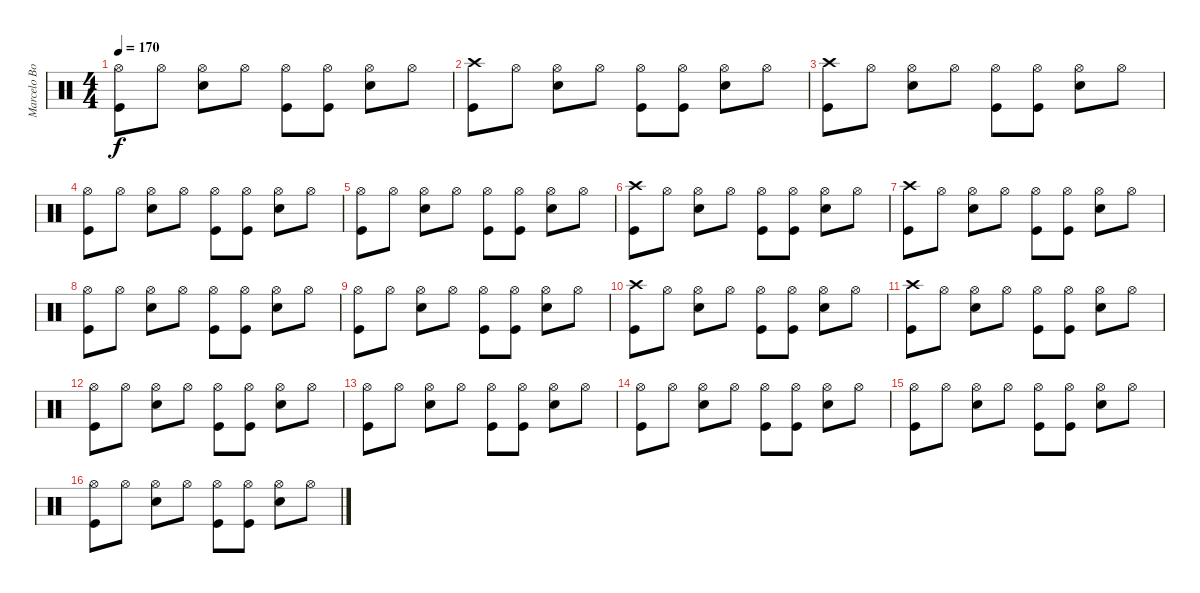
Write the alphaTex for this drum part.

\track ("Marcelo Bonfá" "Marcelo Bo") {instrument percussion}
\staff {score}
\articulation defaults
\ts (4 4)
\tempo 170
\clef neutral
\ks c
("Hi-Hat (open)" "Kick (hit)").8{dy f} "Hi-Hat (open)".8 ("Hi-Hat (open)" "Snare (hit) 2").8 "Hi-Hat (open)".8 ("Hi-Hat (open)" "Kick (hit)").8 ("Hi-Hat (open)" "Kick (hit)").8 ("Hi-Hat (open)" "Snare (hit) 2").8 "Hi-Hat (open)".8 |
("Crash high (hit)" "Kick (hit)").8 "Hi-Hat (open)".8 ("Hi-Hat (open)" "Snare (hit) 2").8 "Hi-Hat (open)".8 ("Hi-Hat (open)" "Kick (hit)").8 ("Hi-Hat (open)" "Kick (hit)").8 ("Hi-Hat (open)" "Snare (hit) 2").8 "Hi-Hat (open)".8 |
("Crash high (hit)" "Kick (hit)").8 "Hi-Hat (open)".8 ("Hi-Hat (open)" "Snare (hit) 2").8 "Hi-Hat (open)".8 ("Hi-Hat (open)" "Kick (hit)").8 ("Hi-Hat (open)" "Kick (hit)").8 ("Hi-Hat (open)" "Snare (hit) 2").8 "Hi-Hat (open)".8 |
("Hi-Hat (open)" "Kick (hit)").8 "Hi-Hat (open)".8 ("Hi-Hat (open)" "Snare (hit) 2").8 "Hi-Hat (open)".8 ("Hi-Hat (open)" "Kick (hit)").8 ("Hi-Hat (open)" "Kick (hit)").8 ("Hi-Hat (open)" "Snare (hit) 2").8 "Hi-Hat (open)".8 |
("Hi-Hat (open)" "Kick (hit)").8 "Hi-Hat (open)".8 ("Hi-Hat (open)" "Snare (hit) 2").8 "Hi-Hat (open)".8 ("Hi-Hat (open)" "Kick (hit)").8 ("Hi-Hat (open)" "Kick (hit)").8 ("Hi-Hat (open)" "Snare (hit) 2").8 "Hi-Hat (open)".8 |
("Crash high (hit)" "Kick (hit)").8 "Hi-Hat (open)".8 ("Hi-Hat (open)" "Snare (hit) 2").8 "Hi-Hat (open)".8 ("Hi-Hat (open)" "Kick (hit)").8 ("Hi-Hat (open)" "Kick (hit)").8 ("Hi-Hat (open)" "Snare (hit) 2").8 "Hi-Hat (open)".8 |
("Crash high (hit)" "Kick (hit)").8 "Hi-Hat (open)".8 ("Hi-Hat (open)" "Snare (hit) 2").8 "Hi-Hat (open)".8 ("Hi-Hat (open)" "Kick (hit)").8 ("Hi-Hat (open)" "Kick (hit)").8 ("Hi-Hat (open)" "Snare (hit) 2").8 "Hi-Hat (open)".8 |
("Hi-Hat (open)" "Kick (hit)").8 "Hi-Hat (open)".8 ("Hi-Hat (open)" "Snare (hit) 2").8 "Hi-Hat (open)".8 ("Hi-Hat (open)" "Kick (hit)").8 ("Hi-Hat (open)" "Kick (hit)").8 ("Hi-Hat (open)" "Snare (hit) 2").8 "Hi-Hat (open)".8 |
("Hi-Hat (open)" "Kick (hit)").8 "Hi-Hat (open)".8 ("Hi-Hat (open)" "Snare (hit) 2").8 "Hi-Hat (open)".8 ("Hi-Hat (open)" "Kick (hit)").8 ("Hi-Hat (open)" "Kick (hit)").8 ("Hi-Hat (open)" "Snare (hit) 2").8 "Hi-Hat (open)".8 |
("Crash high (hit)" "Kick (hit)").8 "Hi-Hat (open)".8 ("Hi-Hat (open)" "Snare (hit) 2").8 "Hi-Hat (open)".8 ("Hi-Hat (open)" "Kick (hit)").8 ("Hi-Hat (open)" "Kick (hit)").8 ("Hi-Hat (open)" "Snare (hit) 2").8 "Hi-Hat (open)".8 |
("Crash high (hit)" "Kick (hit)").8 "Hi-Hat (open)".8 ("Hi-Hat (open)" "Snare (hit) 2").8 "Hi-Hat (open)".8 ("Hi-Hat (open)" "Kick (hit)").8 ("Hi-Hat (open)" "Kick (hit)").8 ("Hi-Hat (open)" "Snare (hit) 2").8 "Hi-Hat (open)".8 |
("Hi-Hat (open)" "Kick (hit)").8 "Hi-Hat (open)".8 ("Hi-Hat (open)" "Snare (hit) 2").8 "Hi-Hat (open)".8 ("Hi-Hat (open)" "Kick (hit)").8 ("Hi-Hat (open)" "Kick (hit)").8 ("Hi-Hat (open)" "Snare (hit) 2").8 "Hi-Hat (open)".8 |
("Hi-Hat (open)" "Kick (hit)").8 "Hi-Hat (open)".8 ("Hi-Hat (open)" "Snare (hit) 2").8 "Hi-Hat (open)".8 ("Hi-Hat (open)" "Kick (hit)").8 ("Hi-Hat (open)" "Kick (hit)").8 ("Hi-Hat (open)" "Snare (hit) 2").8 "Hi-Hat (open)".8 |
("Hi-Hat (open)" "Kick (hit)").8 "Hi-Hat (open)".8 ("Hi-Hat (open)" "Snare (hit) 2").8 "Hi-Hat (open)".8 ("Hi-Hat (open)" "Kick (hit)").8 ("Hi-Hat (open)" "Kick (hit)").8 ("Hi-Hat (open)" "Snare (hit) 2").8 "Hi-Hat (open)".8 |
("Hi-Hat (open)" "Kick (hit)").8 "Hi-Hat (open)".8 ("Hi-Hat (open)" "Snare (hit) 2").8 "Hi-Hat (open)".8 ("Hi-Hat (open)" "Kick (hit)").8 ("Hi-Hat (open)" "Kick (hit)").8 ("Hi-Hat (open)" "Snare (hit) 2").8 "Hi-Hat (open)".8 |
("Hi-Hat (open)" "Kick (hit)").8 "Hi-Hat (open)".8 ("Hi-Hat (open)" "Snare (hit) 2").8 "Hi-Hat (open)".8 ("Hi-Hat (open)" "Kick (hit)").8 ("Hi-Hat (open)" "Kick (hit)").8 ("Hi-Hat (open)" "Snare (hit) 2").8 "Hi-Hat (open)".8
